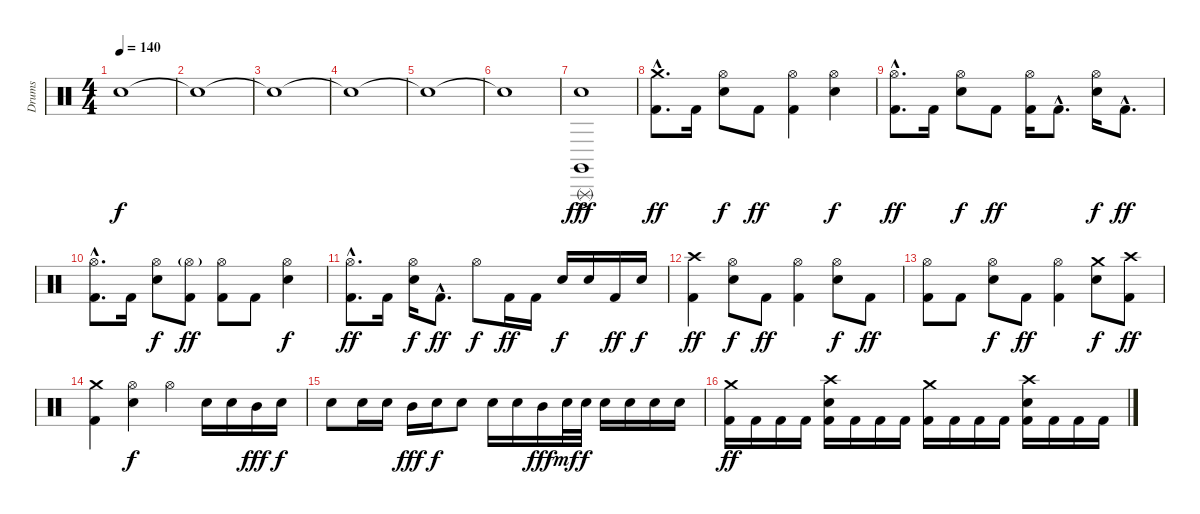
\track ("Drums" "Drums") {instrument percussion}
\staff {score}
\articulation defaults
\ts (4 4)
\tempo 140
\clef neutral
\ks c "Snare (hit)"{t}.1{dy f}
|
"Snare (hit)"{t}.1 |
"Snare (hit)"{t}.1 |
"Snare (hit)"{t}.1 |
"Snare (hit)"{t}.1 |
"Snare (hit)"{t}.1 |
("Claves (hit)" "Snare (hit)" "Triangle (rnute)"{ac}).1{dy fff} |
("Crash medium (hit)"{hac} "Kick (hit) 2"{hac}).8{d dy ff volume 8} "Kick (hit) 2".16 ("Hi-Hat (open)" "Snare (hit) 2").8{dy f} "Kick (hit) 2".8{dy ff} ("Hi-Hat (open)" "Kick (hit) 2").4 ("Hi-Hat (open)" "Snare (hit) 2").4{dy f} |
("Hi-Hat (open)"{hac} "Kick (hit) 2"{hac}).8{d dy ff} "Kick (hit) 2".16 ("Hi-Hat (open)" "Snare (hit) 2").8{dy f} "Kick (hit) 2".8{dy ff} ("Hi-Hat (open)" "Kick (hit) 2").16 "Kick (hit) 2"{hac}.8{d} ("Hi-Hat (open)" "Snare (hit) 2").16{dy f} "Kick (hit) 2"{hac}.8{d dy ff} |
("Hi-Hat (open)"{hac} "Kick (hit) 2"{hac}).8{d} "Kick (hit) 2".16 ("Hi-Hat (open)" "Snare (hit) 2").8{dy f} ("Hi-Hat (open)"{g} "Kick (hit) 2").8{dy ff} ("Hi-Hat (open)" "Kick (hit) 2").8 "Kick (hit) 2".8 ("Hi-Hat (open)" "Snare (hit) 2").4{dy f} |
("Hi-Hat (open)"{hac} "Kick (hit) 2"{hac}).8{d dy ff} "Kick (hit) 2".16 ("Hi-Hat (open)" "Snare (hit) 2").16{dy f} "Kick (hit) 2"{hac}.8{d dy ff} "Hi-Hat (open)".8{dy f} "Kick (hit) 2".16{dy ff} "Kick (hit) 2".16 "Snare (hit) 2".16{dy f} "Snare (hit) 2".16 "Kick (hit) 2".16{dy ff} "Snare (hit) 2".16{dy f} |
("Crash high (hit)" "Kick (hit) 2").4{dy ff} ("Hi-Hat (open)" "Snare (hit) 2").8{dy f} "Kick (hit) 2".8{dy ff} ("Hi-Hat (open)" "Kick (hit) 2").4 ("Hi-Hat (open)" "Snare (hit) 2").8{dy f} "Kick (hit) 2".8{dy ff} |
("Hi-Hat (open)" "Kick (hit) 2").8 "Kick (hit) 2".8 ("Hi-Hat (open)" "Snare (hit) 2").8{dy f} "Kick (hit) 2".8{dy ff} ("Hi-Hat (open)" "Kick (hit) 2").4 ("Crash medium (hit)" "Snare (hit) 2").8{dy f} ("Crash high (hit)" "Kick (hit) 2").8{dy ff} |
("Crash medium (hit)" "Kick (hit) 2").4 ("Hi-Hat (open)" "Snare (hit) 2").4{dy f} "Hi-Hat (open)".4 "Snare (hit) 2".16 "Snare (hit) 2".16 "Mid Tom (hit)".16{dy fff} "Snare (hit) 2".16{dy f} |
"Snare (hit) 2".8 "Snare (hit) 2".16 "Snare (hit) 2".16 "Mid Tom (hit)".16{dy fff} "Snare (hit) 2".16{dy f} "Snare (hit) 2".8 "Snare (hit) 2".16 "Snare (hit) 2".16 "Mid Tom (hit)".16{dy fff} "Snare (hit) 2".32{dy mf} "Snare (hit) 2".32{dy f} "Snare (hit) 2".16 "Snare (hit) 2".16 "Snare (hit) 2".16 "Snare (hit) 2".16 |
("Crash medium (hit)" "Kick (hit) 2").16{dy ff} "Kick (hit) 2".16 "Kick (hit) 2".16 "Kick (hit) 2".16 ("Crash high (hit)" "Snare (hit) 2" "Kick (hit) 2").16 "Kick (hit) 2".16 "Kick (hit) 2".16 "Kick (hit) 2".16 ("Crash medium (hit)" "Kick (hit) 2").16 "Kick (hit) 2".16 "Kick (hit) 2".16 "Kick (hit) 2".16 ("Crash high (hit)" "Snare (hit) 2" "Kick (hit) 2").16 "Kick (hit) 2".16 "Kick (hit) 2".16 "Kick (hit) 2".16
